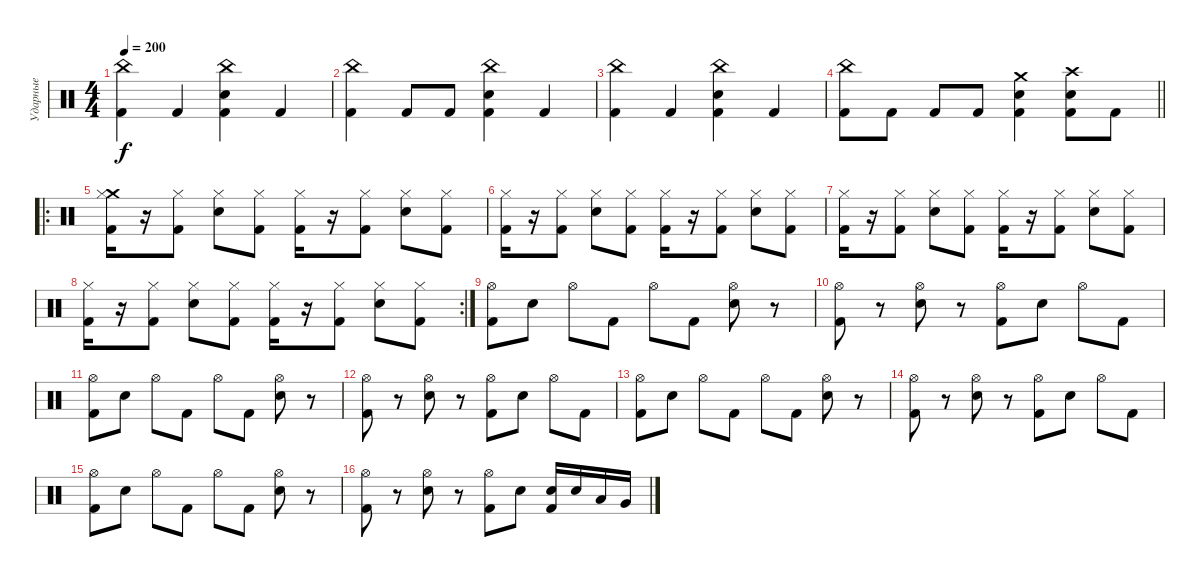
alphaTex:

\track ("Ударные" "Ударные") {instrument percussion}
\staff {score}
\articulation defaults
\ts (4 4)
\tempo 200
\clef neutral
\ks c
("China (hit)" "Kick (hit) 2").4{dy f} "Kick (hit) 2".4 ("Snare (hit) 2" "China (hit)" "Kick (hit) 2").4 "Kick (hit) 2".4 |
("China (hit)" "Kick (hit) 2").4 "Kick (hit) 2".8 "Kick (hit) 2".8 ("Snare (hit) 2" "China (hit)" "Kick (hit) 2").4 "Kick (hit) 2".4 |
("China (hit)" "Kick (hit) 2").4 "Kick (hit) 2".4 ("Snare (hit) 2" "China (hit)" "Kick (hit) 2").4 "Kick (hit) 2".4 |
\barLineRight lightlight
("China (hit)" "Kick (hit) 2").8 "Kick (hit) 2".8 "Kick (hit) 2".8 "Kick (hit) 2".8 ("Snare (hit) 2" "Crash medium (hit)" "Kick (hit) 2").4 ("Snare (hit) 2" "Crash high (hit)" "Kick (hit) 2").8 "Kick (hit) 2".8 |
\ro
("Crash medium (hit)" "Hi-Hat (closed)" "Kick (hit) 2").16 r.16 ("Hi-Hat (closed)" "Kick (hit) 2").8 ("Snare (hit) 2" "Hi-Hat (closed)").8 ("Hi-Hat (closed)" "Kick (hit) 2").8 ("Hi-Hat (closed)" "Kick (hit) 2").16 r.16 ("Hi-Hat (closed)" "Kick (hit) 2").8 ("Snare (hit) 2" "Hi-Hat (closed)").8 ("Hi-Hat (closed)" "Kick (hit) 2").8 |
("Hi-Hat (closed)" "Kick (hit) 2").16 r.16 ("Hi-Hat (closed)" "Kick (hit) 2").8 ("Snare (hit) 2" "Hi-Hat (closed)").8 ("Hi-Hat (closed)" "Kick (hit) 2").8 ("Hi-Hat (closed)" "Kick (hit) 2").16 r.16 ("Hi-Hat (closed)" "Kick (hit) 2").8 ("Snare (hit) 2" "Hi-Hat (closed)").8 ("Hi-Hat (closed)" "Kick (hit) 2").8 |
("Hi-Hat (closed)" "Kick (hit) 2").16 r.16 ("Hi-Hat (closed)" "Kick (hit) 2").8 ("Snare (hit) 2" "Hi-Hat (closed)").8 ("Hi-Hat (closed)" "Kick (hit) 2").8 ("Hi-Hat (closed)" "Kick (hit) 2").16 r.16 ("Hi-Hat (closed)" "Kick (hit) 2").8 ("Snare (hit) 2" "Hi-Hat (closed)").8 ("Hi-Hat (closed)" "Kick (hit) 2").8 |
\rc 2
("Hi-Hat (closed)" "Kick (hit) 2").16 r.16 ("Hi-Hat (closed)" "Kick (hit) 2").8 ("Snare (hit) 2" "Hi-Hat (closed)").8 ("Hi-Hat (closed)" "Kick (hit) 2").8 ("Hi-Hat (closed)" "Kick (hit) 2").16 r.16 ("Hi-Hat (closed)" "Kick (hit) 2").8 ("Snare (hit) 2" "Hi-Hat (closed)").8 ("Hi-Hat (closed)" "Kick (hit) 2").8 |
("Kick (hit) 2" "Hi-Hat (open)").8 "Snare (hit) 2".8 "Hi-Hat (open)".8 "Kick (hit) 2".8 "Hi-Hat (open)".8 "Kick (hit) 2".8 ("Snare (hit) 2" "Hi-Hat (open)").8 r.8 |
("Kick (hit) 2" "Hi-Hat (open)").8 r.8 ("Snare (hit) 2" "Hi-Hat (open)").8 r.8 ("Kick (hit) 2" "Hi-Hat (open)").8 "Snare (hit) 2".8 "Hi-Hat (open)".8 "Kick (hit) 2".8 |
("Kick (hit) 2" "Hi-Hat (open)").8 "Snare (hit) 2".8 "Hi-Hat (open)".8 "Kick (hit) 2".8 "Hi-Hat (open)".8 "Kick (hit) 2".8 ("Snare (hit) 2" "Hi-Hat (open)").8 r.8 |
("Kick (hit) 2" "Hi-Hat (open)").8 r.8 ("Snare (hit) 2" "Hi-Hat (open)").8 r.8 ("Kick (hit) 2" "Hi-Hat (open)").8 "Snare (hit) 2".8 "Hi-Hat (open)".8 "Kick (hit) 2".8 |
("Kick (hit) 2" "Hi-Hat (open)").8 "Snare (hit) 2".8 "Hi-Hat (open)".8 "Kick (hit) 2".8 "Hi-Hat (open)".8 "Kick (hit) 2".8 ("Snare (hit) 2" "Hi-Hat (open)").8 r.8 |
("Kick (hit) 2" "Hi-Hat (open)").8 r.8 ("Snare (hit) 2" "Hi-Hat (open)").8 r.8 ("Kick (hit) 2" "Hi-Hat (open)").8 "Snare (hit) 2".8 "Hi-Hat (open)".8 "Kick (hit) 2".8 |
("Kick (hit) 2" "Hi-Hat (open)").8 "Snare (hit) 2".8 "Hi-Hat (open)".8 "Kick (hit) 2".8 "Hi-Hat (open)".8 "Kick (hit) 2".8 ("Snare (hit) 2" "Hi-Hat (open)").8 r.8 |
("Kick (hit) 2" "Hi-Hat (open)").8 r.8 ("Snare (hit) 2" "Hi-Hat (open)").8 r.8 ("Kick (hit) 2" "Hi-Hat (open)").8 "Snare (hit) 2".8 ("Snare (hit) 2" "Kick (hit) 2").16 "Snare (hit) 2".16 "Low Tom (hit)".16 "Very Low Tom (hit)".16
